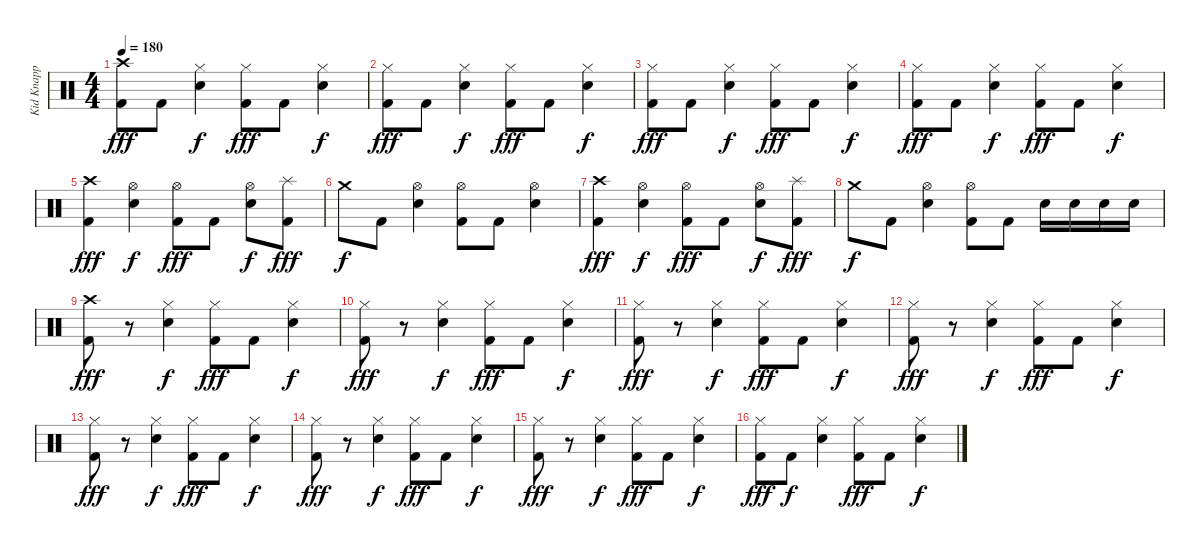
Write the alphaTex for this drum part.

\track ("Kid Knapp (Drums)" "Kid Knapp ") {instrument percussion}
\staff {score}
\articulation defaults
\ts (4 4)
\tempo 180
\clef neutral
\ks c
("Crash high (hit)" "Kick (hit) 2").8{dy fff} "Kick (hit) 2".8 ("Hi-Hat (closed)" "Snare (hit) 2").4{dy f} ("Hi-Hat (closed)" "Kick (hit) 2").8{dy fff} "Kick (hit) 2".8 ("Hi-Hat (closed)" "Snare (hit) 2").4{dy f} |
("Hi-Hat (closed)" "Kick (hit) 2").8{dy fff} "Kick (hit) 2".8 ("Hi-Hat (closed)" "Snare (hit) 2").4{dy f} ("Hi-Hat (closed)" "Kick (hit) 2").8{dy fff} "Kick (hit) 2".8 ("Hi-Hat (closed)" "Snare (hit) 2").4{dy f} |
("Hi-Hat (closed)" "Kick (hit) 2").8{dy fff} "Kick (hit) 2".8 ("Hi-Hat (closed)" "Snare (hit) 2").4{dy f} ("Hi-Hat (closed)" "Kick (hit) 2").8{dy fff} "Kick (hit) 2".8 ("Hi-Hat (closed)" "Snare (hit) 2").4{dy f} |
("Hi-Hat (closed)" "Kick (hit) 2").8{dy fff} "Kick (hit) 2".8 ("Hi-Hat (closed)" "Snare (hit) 2").4{dy f} ("Hi-Hat (closed)" "Kick (hit) 2").8{dy fff} "Kick (hit) 2".8 ("Hi-Hat (closed)" "Snare (hit) 2").4{dy f} |
("Crash high (hit)" "Kick (hit) 2").4{dy fff} ("Hi-Hat (open)" "Snare (hit) 2").4{dy f} ("Hi-Hat (open)" "Kick (hit) 2").8{dy fff} "Kick (hit) 2".8 ("Hi-Hat (open)" "Snare (hit) 2").8{dy f} ("Splash (hit)" "Kick (hit) 2").8{dy fff} |
"Crash medium (hit)".8{dy f} "Kick (hit) 2".8 ("Hi-Hat (open)" "Snare (hit) 2").4 ("Hi-Hat (open)" "Kick (hit) 2").8 "Kick (hit) 2".8 ("Hi-Hat (open)" "Snare (hit) 2").4 |
("Crash high (hit)" "Kick (hit) 2").4{dy fff} ("Hi-Hat (open)" "Snare (hit) 2").4{dy f} ("Hi-Hat (open)" "Kick (hit) 2").8{dy fff} "Kick (hit) 2".8 ("Hi-Hat (open)" "Snare (hit) 2").8{dy f} ("Splash (hit)" "Kick (hit) 2").8{dy fff} |
"Crash medium (hit)".8{dy f} "Kick (hit) 2".8 ("Hi-Hat (open)" "Snare (hit) 2").4 ("Hi-Hat (open)" "Kick (hit) 2").8 "Kick (hit) 2".8 "Snare (hit) 2".16 "Snare (hit) 2".16 "Snare (hit) 2".16 "Snare (hit) 2".16 |
("Crash high (hit)" "Kick (hit) 2").8{dy fff} r.8 ("Hi-Hat (closed)" "Snare (hit) 2").4{dy f} ("Hi-Hat (closed)" "Kick (hit) 2").8{dy fff} "Kick (hit) 2".8 ("Hi-Hat (closed)" "Snare (hit) 2").4{dy f} |
("Hi-Hat (closed)" "Kick (hit) 2").8{dy fff} r.8 ("Hi-Hat (closed)" "Snare (hit) 2").4{dy f} ("Hi-Hat (closed)" "Kick (hit) 2").8{dy fff} "Kick (hit) 2".8 ("Hi-Hat (closed)" "Snare (hit) 2").4{dy f} |
("Hi-Hat (closed)" "Kick (hit) 2").8{dy fff} r.8 ("Hi-Hat (closed)" "Snare (hit) 2").4{dy f} ("Hi-Hat (closed)" "Kick (hit) 2").8{dy fff} "Kick (hit) 2".8 ("Hi-Hat (closed)" "Snare (hit) 2").4{dy f} |
("Hi-Hat (closed)" "Kick (hit) 2").8{dy fff} r.8 ("Hi-Hat (closed)" "Snare (hit) 2").4{dy f} ("Hi-Hat (closed)" "Kick (hit) 2").8{dy fff} "Kick (hit) 2".8 ("Hi-Hat (closed)" "Snare (hit) 2").4{dy f} |
("Hi-Hat (closed)" "Kick (hit) 2").8{dy fff} r.8 ("Hi-Hat (closed)" "Snare (hit) 2").4{dy f} ("Hi-Hat (closed)" "Kick (hit) 2").8{dy fff} "Kick (hit) 2".8 ("Hi-Hat (closed)" "Snare (hit) 2").4{dy f} |
("Hi-Hat (closed)" "Kick (hit) 2").8{dy fff} r.8 ("Hi-Hat (closed)" "Snare (hit) 2").4{dy f} ("Hi-Hat (closed)" "Kick (hit) 2").8{dy fff} "Kick (hit) 2".8 ("Hi-Hat (closed)" "Snare (hit) 2").4{dy f} |
("Hi-Hat (closed)" "Kick (hit) 2").8{dy fff} r.8 ("Hi-Hat (closed)" "Snare (hit) 2").4{dy f} ("Hi-Hat (closed)" "Kick (hit) 2").8{dy fff} "Kick (hit) 2".8 ("Hi-Hat (closed)" "Snare (hit) 2").4{dy f} |
("Hi-Hat (closed)" "Kick (hit) 2").8{dy fff} "Kick (hit) 2".8{dy f} ("Hi-Hat (closed)" "Snare (hit) 2").4 ("Hi-Hat (closed)" "Kick (hit) 2").8{dy fff} "Kick (hit) 2".8 ("Hi-Hat (closed)" "Snare (hit) 2").4{dy f}
